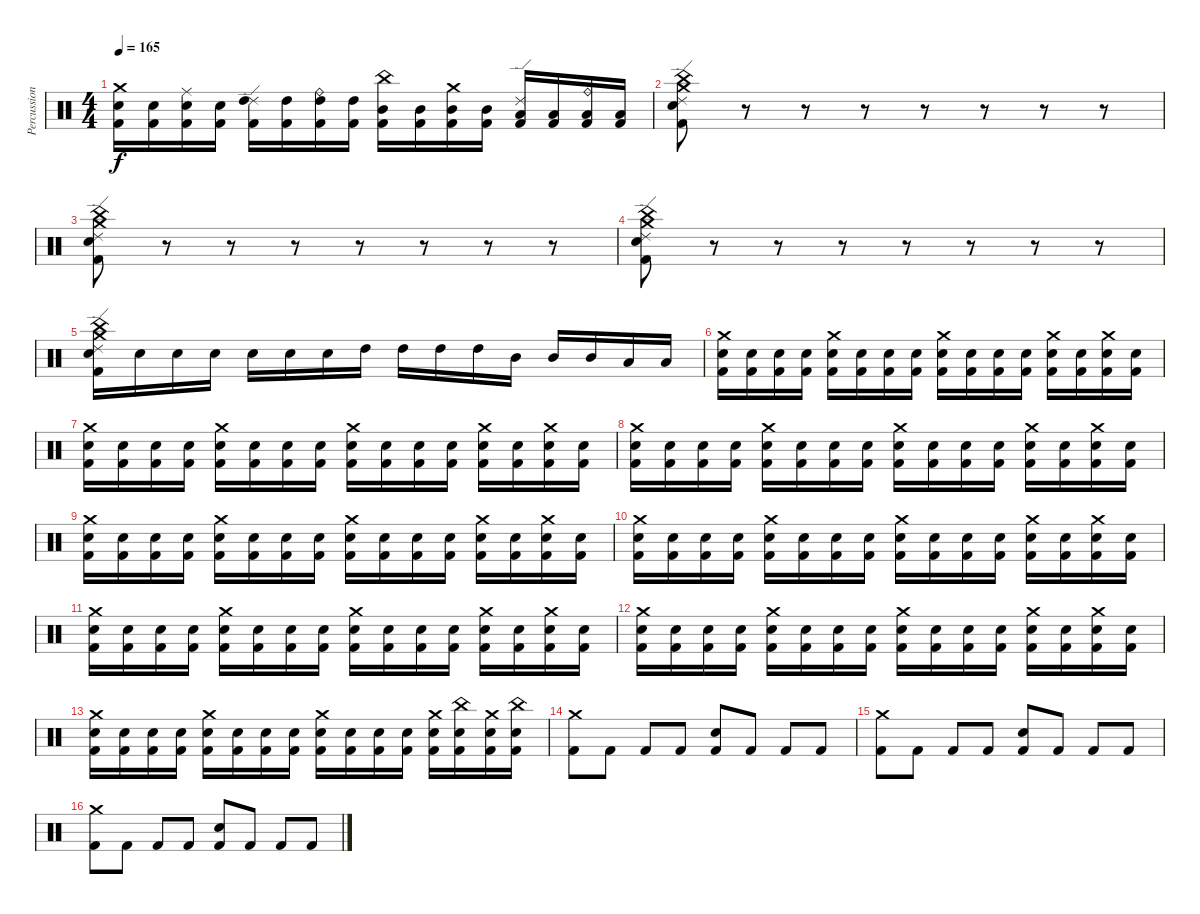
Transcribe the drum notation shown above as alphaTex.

\track ("Percussions" "Percussion") {instrument percussion}
\staff {score}
\articulation defaults
\ts (4 4)
\tempo 165
\clef neutral
\ks c
("Crash medium (hit)" "Snare (hit) 2" "Kick (hit) 2").16{dy f} ("Snare (hit) 2" "Kick (hit) 2").16 ("Ride (middle)" "Snare (hit) 2" "Kick (hit) 2").16 ("Snare (hit) 2" "Kick (hit) 2").16 ("Ride (edge) 2" "High Tom (hit)" "Kick (hit) 2").16 ("High Tom (hit)" "Kick (hit) 2").16 ("Ride (bell)" "High Tom (hit)" "Kick (hit) 2").16 ("High Tom (hit)" "Kick (hit) 2").16 ("China (hit)" "Mid Tom (hit)" "Kick (hit) 2").16 ("Mid Tom (hit)" "Kick (hit) 2").16 ("Crash medium (hit)" "Mid Tom (hit)" "Kick (hit) 2").16 ("Mid Tom (hit)" "Kick (hit) 2").16 ("Ride (edge) 2" "Low Tom (hit)" "Kick (hit) 2").16 ("Low Tom (hit)" "Kick (hit) 2").16 ("Ride (bell)" "Low Tom (hit)" "Kick (hit) 2").16 ("Low Tom (hit)" "Kick (hit) 2").16 |
("Kick (hit) 2" "Snare (hit) 2" "Ride (edge) 2" "Crash medium (hit)" "China (hit)").8 r.8 r.8 r.8 r.8 r.8 r.8 r.8 |
("Kick (hit) 2" "Snare (hit) 2" "Ride (edge) 2" "Crash medium (hit)" "China (hit)").8 r.8 r.8 r.8 r.8 r.8 r.8 r.8 |
("Kick (hit) 2" "Snare (hit) 2" "Ride (edge) 2" "Crash medium (hit)" "China (hit)").8 r.8 r.8 r.8 r.8 r.8 r.8 r.8 |
("Kick (hit) 2" "Snare (hit) 2" "Ride (edge) 2" "Crash medium (hit)" "China (hit)").16 "Snare (hit) 2".16 "Snare (hit) 2".16 "Snare (hit) 2".16 "Snare (hit) 2".16 "Snare (hit) 2".16 "Snare (hit) 2".16 "High Tom (hit)".16 "High Tom (hit)".16 "High Tom (hit)".16 "High Tom (hit)".16 "Mid Tom (hit)".16 "Mid Tom (hit)".16 "Mid Tom (hit)".16 "Low Tom (hit)".16 "Low Tom (hit)".16 |
("Crash medium (hit)" "Electric Snare (hit)" "Kick (hit) 2").16 ("Electric Snare (hit)" "Kick (hit) 2").16 ("Electric Snare (hit)" "Kick (hit) 2").16 ("Electric Snare (hit)" "Kick (hit) 2").16 ("Crash medium (hit)" "Electric Snare (hit)" "Kick (hit) 2").16 ("Electric Snare (hit)" "Kick (hit) 2").16 ("Electric Snare (hit)" "Kick (hit) 2").16 ("Electric Snare (hit)" "Kick (hit) 2").16 ("Crash medium (hit)" "Electric Snare (hit)" "Kick (hit) 2").16 ("Electric Snare (hit)" "Kick (hit) 2").16 ("Electric Snare (hit)" "Kick (hit) 2").16 ("Electric Snare (hit)" "Kick (hit) 2").16 ("Crash medium (hit)" "Electric Snare (hit)" "Kick (hit) 2").16 ("Electric Snare (hit)" "Kick (hit) 2").16 ("Crash medium (hit)" "Electric Snare (hit)" "Kick (hit) 2").16 ("Electric Snare (hit)" "Kick (hit) 2").16 |
("Crash medium (hit)" "Electric Snare (hit)" "Kick (hit) 2").16 ("Electric Snare (hit)" "Kick (hit) 2").16 ("Electric Snare (hit)" "Kick (hit) 2").16 ("Electric Snare (hit)" "Kick (hit) 2").16 ("Crash medium (hit)" "Electric Snare (hit)" "Kick (hit) 2").16 ("Electric Snare (hit)" "Kick (hit) 2").16 ("Electric Snare (hit)" "Kick (hit) 2").16 ("Electric Snare (hit)" "Kick (hit) 2").16 ("Crash medium (hit)" "Electric Snare (hit)" "Kick (hit) 2").16 ("Electric Snare (hit)" "Kick (hit) 2").16 ("Electric Snare (hit)" "Kick (hit) 2").16 ("Electric Snare (hit)" "Kick (hit) 2").16 ("Crash medium (hit)" "Electric Snare (hit)" "Kick (hit) 2").16 ("Electric Snare (hit)" "Kick (hit) 2").16 ("Crash medium (hit)" "Electric Snare (hit)" "Kick (hit) 2").16 ("Electric Snare (hit)" "Kick (hit) 2").16 |
("Crash medium (hit)" "Electric Snare (hit)" "Kick (hit) 2").16 ("Electric Snare (hit)" "Kick (hit) 2").16 ("Electric Snare (hit)" "Kick (hit) 2").16 ("Electric Snare (hit)" "Kick (hit) 2").16 ("Crash medium (hit)" "Electric Snare (hit)" "Kick (hit) 2").16 ("Electric Snare (hit)" "Kick (hit) 2").16 ("Electric Snare (hit)" "Kick (hit) 2").16 ("Electric Snare (hit)" "Kick (hit) 2").16 ("Crash medium (hit)" "Electric Snare (hit)" "Kick (hit) 2").16 ("Electric Snare (hit)" "Kick (hit) 2").16 ("Electric Snare (hit)" "Kick (hit) 2").16 ("Electric Snare (hit)" "Kick (hit) 2").16 ("Crash medium (hit)" "Electric Snare (hit)" "Kick (hit) 2").16 ("Electric Snare (hit)" "Kick (hit) 2").16 ("Crash medium (hit)" "Electric Snare (hit)" "Kick (hit) 2").16 ("Electric Snare (hit)" "Kick (hit) 2").16 |
("Crash medium (hit)" "Electric Snare (hit)" "Kick (hit) 2").16 ("Electric Snare (hit)" "Kick (hit) 2").16 ("Electric Snare (hit)" "Kick (hit) 2").16 ("Electric Snare (hit)" "Kick (hit) 2").16 ("Crash medium (hit)" "Electric Snare (hit)" "Kick (hit) 2").16 ("Electric Snare (hit)" "Kick (hit) 2").16 ("Electric Snare (hit)" "Kick (hit) 2").16 ("Electric Snare (hit)" "Kick (hit) 2").16 ("Crash medium (hit)" "Electric Snare (hit)" "Kick (hit) 2").16 ("Electric Snare (hit)" "Kick (hit) 2").16 ("Electric Snare (hit)" "Kick (hit) 2").16 ("Electric Snare (hit)" "Kick (hit) 2").16 ("Crash medium (hit)" "Electric Snare (hit)" "Kick (hit) 2").16 ("Electric Snare (hit)" "Kick (hit) 2").16 ("Crash medium (hit)" "Electric Snare (hit)" "Kick (hit) 2").16 ("Electric Snare (hit)" "Kick (hit) 2").16 |
("Crash medium (hit)" "Electric Snare (hit)" "Kick (hit) 2").16 ("Electric Snare (hit)" "Kick (hit) 2").16 ("Electric Snare (hit)" "Kick (hit) 2").16 ("Electric Snare (hit)" "Kick (hit) 2").16 ("Crash medium (hit)" "Electric Snare (hit)" "Kick (hit) 2").16 ("Electric Snare (hit)" "Kick (hit) 2").16 ("Electric Snare (hit)" "Kick (hit) 2").16 ("Electric Snare (hit)" "Kick (hit) 2").16 ("Crash medium (hit)" "Electric Snare (hit)" "Kick (hit) 2").16 ("Electric Snare (hit)" "Kick (hit) 2").16 ("Electric Snare (hit)" "Kick (hit) 2").16 ("Electric Snare (hit)" "Kick (hit) 2").16 ("Crash medium (hit)" "Electric Snare (hit)" "Kick (hit) 2").16 ("Electric Snare (hit)" "Kick (hit) 2").16 ("Crash medium (hit)" "Electric Snare (hit)" "Kick (hit) 2").16 ("Electric Snare (hit)" "Kick (hit) 2").16 |
("Crash medium (hit)" "Electric Snare (hit)" "Kick (hit) 2").16 ("Electric Snare (hit)" "Kick (hit) 2").16 ("Electric Snare (hit)" "Kick (hit) 2").16 ("Electric Snare (hit)" "Kick (hit) 2").16 ("Crash medium (hit)" "Electric Snare (hit)" "Kick (hit) 2").16 ("Electric Snare (hit)" "Kick (hit) 2").16 ("Electric Snare (hit)" "Kick (hit) 2").16 ("Electric Snare (hit)" "Kick (hit) 2").16 ("Crash medium (hit)" "Electric Snare (hit)" "Kick (hit) 2").16 ("Electric Snare (hit)" "Kick (hit) 2").16 ("Electric Snare (hit)" "Kick (hit) 2").16 ("Electric Snare (hit)" "Kick (hit) 2").16 ("Crash medium (hit)" "Electric Snare (hit)" "Kick (hit) 2").16 ("Electric Snare (hit)" "Kick (hit) 2").16 ("Crash medium (hit)" "Electric Snare (hit)" "Kick (hit) 2").16 ("Electric Snare (hit)" "Kick (hit) 2").16 |
("Crash medium (hit)" "Electric Snare (hit)" "Kick (hit) 2").16 ("Electric Snare (hit)" "Kick (hit) 2").16 ("Electric Snare (hit)" "Kick (hit) 2").16 ("Electric Snare (hit)" "Kick (hit) 2").16 ("Crash medium (hit)" "Electric Snare (hit)" "Kick (hit) 2").16 ("Electric Snare (hit)" "Kick (hit) 2").16 ("Electric Snare (hit)" "Kick (hit) 2").16 ("Electric Snare (hit)" "Kick (hit) 2").16 ("Crash medium (hit)" "Electric Snare (hit)" "Kick (hit) 2").16 ("Electric Snare (hit)" "Kick (hit) 2").16 ("Electric Snare (hit)" "Kick (hit) 2").16 ("Electric Snare (hit)" "Kick (hit) 2").16 ("Crash medium (hit)" "Electric Snare (hit)" "Kick (hit) 2").16 ("Electric Snare (hit)" "Kick (hit) 2").16 ("Crash medium (hit)" "Electric Snare (hit)" "Kick (hit) 2").16 ("Electric Snare (hit)" "Kick (hit) 2").16 |
("Crash medium (hit)" "Electric Snare (hit)" "Kick (hit) 2").16 ("Electric Snare (hit)" "Kick (hit) 2").16 ("Electric Snare (hit)" "Kick (hit) 2").16 ("Electric Snare (hit)" "Kick (hit) 2").16 ("Crash medium (hit)" "Electric Snare (hit)" "Kick (hit) 2").16 ("Electric Snare (hit)" "Kick (hit) 2").16 ("Electric Snare (hit)" "Kick (hit) 2").16 ("Electric Snare (hit)" "Kick (hit) 2").16 ("Crash medium (hit)" "Electric Snare (hit)" "Kick (hit) 2").16 ("Electric Snare (hit)" "Kick (hit) 2").16 ("Electric Snare (hit)" "Kick (hit) 2").16 ("Electric Snare (hit)" "Kick (hit) 2").16 ("Crash medium (hit)" "Electric Snare (hit)" "Kick (hit) 2").16 ("China (hit)" "Electric Snare (hit)" "Kick (hit) 2").16 ("Crash medium (hit)" "Electric Snare (hit)" "Kick (hit) 2").16 ("China (hit)" "Electric Snare (hit)" "Kick (hit) 2").16 |
("Crash medium (hit)" "Kick (hit) 2").8 "Kick (hit) 2".8 "Kick (hit) 2".8 "Kick (hit) 2".8 ("Electric Snare (hit)" "Kick (hit) 2").8 "Kick (hit) 2".8 "Kick (hit) 2".8 "Kick (hit) 2".8 |
("Crash medium (hit)" "Kick (hit) 2").8 "Kick (hit) 2".8 "Kick (hit) 2".8 "Kick (hit) 2".8 ("Electric Snare (hit)" "Kick (hit) 2").8 "Kick (hit) 2".8 "Kick (hit) 2".8 "Kick (hit) 2".8 |
("Crash medium (hit)" "Kick (hit) 2").8 "Kick (hit) 2".8 "Kick (hit) 2".8 "Kick (hit) 2".8 ("Electric Snare (hit)" "Kick (hit) 2").8 "Kick (hit) 2".8 "Kick (hit) 2".8 "Kick (hit) 2".8
